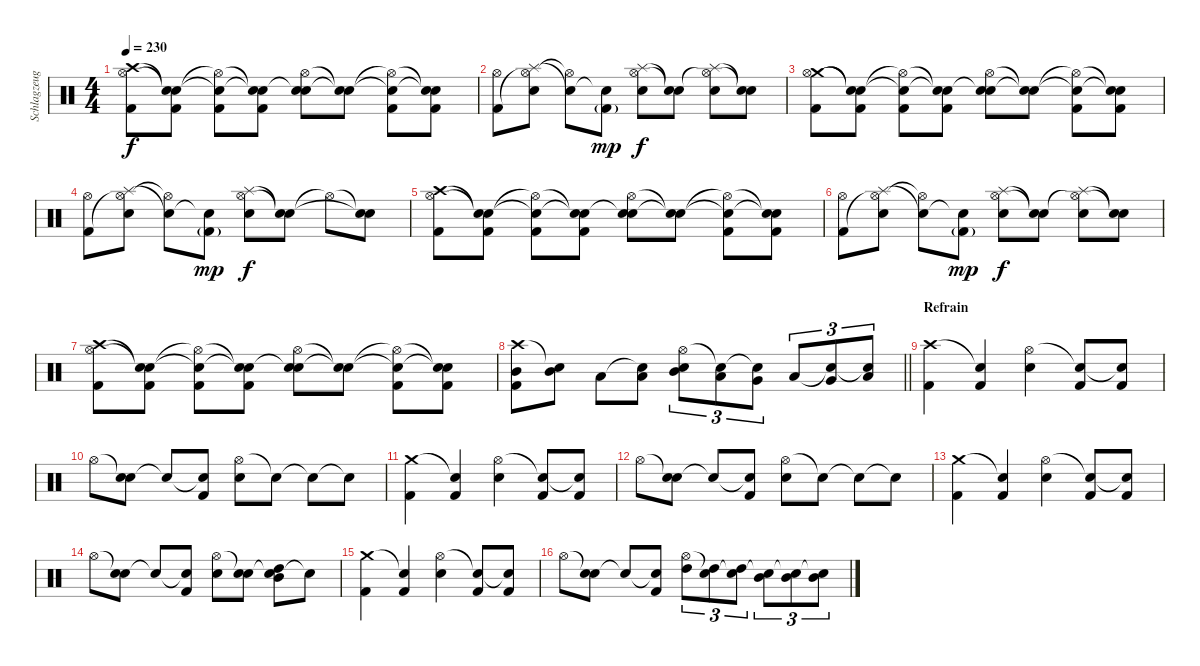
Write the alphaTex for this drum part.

\track ("Schlagzeug" "Schlagzeug") {instrument percussion}
\staff {score}
\articulation defaults
\ts (4 4)
\tempo 230
\clef neutral
\ks c
("Crash high (hit)" "Hi-Hat (open)" "Kick (hit) 2").8{dy f} ("Snare (hit)"{t} "Snare (hit)"{t} "Kick (hit) 2").8 ("Snare (hit)"{t} "Hi-Hat (open)"{t} "Kick (hit) 2").8 ("Snare (hit)"{t} "Snare (hit)"{t} "Kick (hit) 2").8 ("Snare (hit)"{t} "Hi-Hat (open)" "Snare (hit) 2").8 ("Snare (hit)"{t} "Snare (hit)"{t}).8 ("Snare (hit)"{t} "Hi-Hat (open)"{t} "Kick (hit) 2").8 ("Snare (hit)"{t} "Snare (hit)"{t} "Kick (hit) 2").8 |
("Hi-Hat (open)" "Kick (hit) 2").8 ("Splash (hit)" "Hi-Hat (open)"{t} "Snare (hit) 2").8 ("Snare (hit)"{t} "Hi-Hat (open)"{t}).8 ("Snare (hit)"{t} "Kick (hit) 2"{g}).8{dy mp} ("Splash (hit)" "Hi-Hat (open)" "Snare (hit) 2").8{dy f} ("Snare (hit)"{t} "Snare (hit)"{t}).8 ("Splash (hit)" "Hi-Hat (open)"{t} "Snare (hit) 2").8 ("Snare (hit)"{t} "Snare (hit)"{t}).8 |
("Crash medium (hit)" "Hi-Hat (open)" "Kick (hit) 2").8 ("Snare (hit)"{t} "Snare (hit)"{t} "Kick (hit) 2").8 ("Snare (hit)"{t} "Hi-Hat (open)"{t} "Kick (hit) 2").8 ("Snare (hit)"{t} "Snare (hit)"{t} "Kick (hit) 2").8 ("Snare (hit)"{t} "Hi-Hat (open)" "Snare (hit) 2").8 ("Snare (hit)"{t} "Snare (hit)"{t}).8 ("Snare (hit)"{t} "Hi-Hat (open)"{t} "Kick (hit) 2").8 ("Snare (hit)"{t} "Snare (hit)"{t} "Kick (hit) 2").8 |
("Hi-Hat (open)" "Kick (hit) 2").8 ("Splash (hit)" "Hi-Hat (open)"{t} "Snare (hit) 2").8 ("Snare (hit)"{t} "Hi-Hat (open)"{t}).8 ("Snare (hit)"{t} "Kick (hit) 2"{g}).8{dy mp} ("Splash (hit)" "Hi-Hat (open)" "Snare (hit) 2").8{dy f} ("Snare (hit)"{t} "Snare (hit)"{t}).8 "Hi-Hat (open)"{t}.8 ("Snare (hit)"{t} "Snare (hit)"{t}).8 |
("Crash high (hit)" "Hi-Hat (open)" "Kick (hit) 2").8 ("Snare (hit)"{t} "Snare (hit)"{t} "Kick (hit) 2").8 ("Snare (hit)"{t} "Hi-Hat (open)"{t} "Kick (hit) 2").8 ("Snare (hit)"{t} "Snare (hit)"{t} "Kick (hit) 2").8 ("Snare (hit)"{t} "Hi-Hat (open)" "Snare (hit) 2").8 ("Snare (hit)"{t} "Snare (hit)"{t}).8 ("Snare (hit)"{t} "Hi-Hat (open)"{t} "Kick (hit) 2").8 ("Snare (hit)"{t} "Snare (hit)"{t} "Kick (hit) 2").8 |
("Hi-Hat (open)" "Kick (hit) 2").8 ("Splash (hit)" "Hi-Hat (open)"{t} "Snare (hit) 2").8 ("Snare (hit)"{t} "Hi-Hat (open)"{t}).8 ("Snare (hit)"{t} "Kick (hit) 2"{g}).8{dy mp} ("Splash (hit)" "Hi-Hat (open)" "Snare (hit) 2").8{dy f} ("Snare (hit)"{t} "Snare (hit)"{t}).8 ("Splash (hit)" "Hi-Hat (open)"{t} "Snare (hit) 2").8 ("Snare (hit)"{t} "Snare (hit)"{t}).8 |
("Crash high (hit)" "Hi-Hat (open)" "Kick (hit) 2").8 ("Snare (hit)"{t} "Snare (hit)"{t} "Kick (hit) 2").8 ("Snare (hit)"{t} "Hi-Hat (open)"{t} "Kick (hit) 2").8 ("Snare (hit)"{t} "Snare (hit)"{t} "Kick (hit) 2").8 ("Snare (hit)"{t} "Hi-Hat (open)" "Snare (hit) 2").8 ("Snare (hit)"{t} "Snare (hit)"{t}).8 ("Snare (hit)"{t} "Hi-Hat (open)"{t} "Kick (hit) 2").8 ("Snare (hit)"{t} "Snare (hit)"{t} "Kick (hit) 2").8 |
\barLineRight lightlight
("Crash high (hit)" "Mid Tom (hit)" "Kick (hit) 2").8 ("Snare (hit)"{t} "Mid Tom (hit)").8 "Low Tom (hit)".8 ("Snare (hit)"{t} "Low Tom (hit)").8 ("Hi-Hat (open)" "Mid Tom (hit)" "Snare (hit) 2").8{tu (3 2)} ("Snare (hit)"{t} "Low Tom (hit)").8{tu (3 2)} ("Snare (hit)"{t} "Very Low Tom (hit)").8{tu (3 2)} "Low Tom (hit)".8{tu (3 2)} ("Snare (hit)"{t} "Very Low Tom (hit)").8{tu (3 2)} ("Snare (hit)"{t} "Low Floor Tom (hit)").8{tu (3 2)} |
\section ("" "Refrain")
("Crash high (hit)" "Kick (hit) 2").4 ("Snare (hit)"{t} "Kick (hit) 2").4 ("Hi-Hat (open)" "Snare (hit) 2").4 ("Snare (hit)"{t} "Kick (hit) 2").8 ("Snare (hit)"{t} "Kick (hit) 2").8 |
"Hi-Hat (open)".8 ("Snare (hit)"{t} "Snare (hit) 2").8 "Snare (hit)"{t}.8 ("Snare (hit)"{t} "Kick (hit) 2").8 ("Hi-Hat (open)" "Snare (hit) 2").8 "Snare (hit)"{t}.8 "Snare (hit)"{t}.8 "Snare (hit)"{t}.8 |
("Crash medium (hit)" "Kick (hit) 2").4 ("Snare (hit)"{t} "Kick (hit) 2").4 ("Hi-Hat (open)" "Snare (hit) 2").4 ("Snare (hit)"{t} "Kick (hit) 2").8 ("Snare (hit)"{t} "Kick (hit) 2").8 |
"Hi-Hat (open)".8 ("Snare (hit)"{t} "Snare (hit) 2").8 "Snare (hit)"{t}.8 ("Snare (hit)"{t} "Kick (hit) 2").8 ("Hi-Hat (open)" "Snare (hit) 2").8 "Snare (hit)"{t}.8 "Snare (hit)"{t}.8 "Snare (hit)"{t}.8 |
("Crash medium (hit)" "Kick (hit) 2").4 ("Snare (hit)"{t} "Kick (hit) 2").4 ("Hi-Hat (open)" "Snare (hit) 2").4 ("Snare (hit)"{t} "Kick (hit) 2").8 ("Snare (hit)"{t} "Kick (hit) 2").8 |
"Hi-Hat (open)".8 ("Snare (hit)"{t} "Snare (hit) 2").8 "Snare (hit)"{t}.8 ("Snare (hit)"{t} "Kick (hit) 2").8 ("Hi-Hat (open)" "Snare (hit) 2").8 ("Snare (hit)"{t} "Snare (hit) 2").8 ("Snare (hit)"{t} "Mid Tom (hit)" "High Tom (hit)").8 "Snare (hit)"{t}.8 |
("Crash medium (hit)" "Kick (hit) 2").4 ("Snare (hit)"{t} "Kick (hit) 2").4 ("Hi-Hat (open)" "Snare (hit) 2").4 ("Snare (hit)"{t} "Kick (hit) 2").8 ("Snare (hit)"{t} "Kick (hit) 2").8 |
"Hi-Hat (open)".8 ("Snare (hit)"{t} "Snare (hit) 2").8 "Snare (hit)"{t}.8 ("Snare (hit)"{t} "Kick (hit) 2").8 ("Hi-Hat (open)" "High Tom (hit)").8{tu (3 2)} ("Snare (hit)"{t} "High Tom (hit)").8{tu (3 2)} ("Snare (hit)"{t} "High Tom (hit)").8{tu (3 2)} ("Snare (hit)"{t} "Mid Tom (hit)").8{tu (3 2)} ("Snare (hit)"{t} "Mid Tom (hit)").8{tu (3 2)} ("Snare (hit)"{t} "Mid Tom (hit)").8{tu (3 2)}
